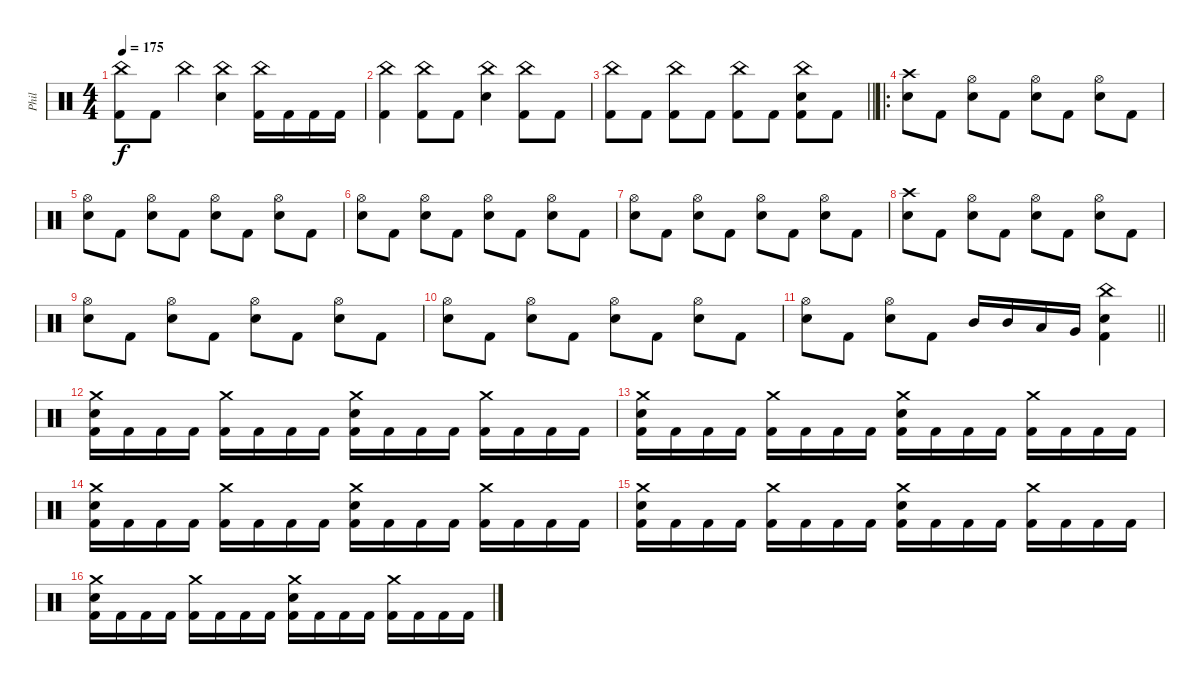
\track ("Phil" "Phil") {instrument percussion}
\staff {score}
\articulation defaults
\ts (4 4)
\tempo 175
\clef neutral
\ks c
("China (hit)" "Kick (hit) 2").8{dy f} "Kick (hit) 2".8 "China (hit)".4 ("China (hit)" "Electric Snare (hit)").4 ("China (hit)" "Kick (hit) 2").16 "Kick (hit) 2".16 "Kick (hit) 2".16 "Kick (hit) 2".16 |
("China (hit)" "Kick (hit) 2").4 ("China (hit)" "Kick (hit) 2").8 "Kick (hit) 2".8 ("China (hit)" "Electric Snare (hit)").4 ("China (hit)" "Kick (hit) 2").8 "Kick (hit) 2".8 |
\barLineRight lightlight
("China (hit)" "Kick (hit) 2").8 "Kick (hit) 2".8 ("China (hit)" "Kick (hit) 2").8 "Kick (hit) 2".8 ("China (hit)" "Kick (hit) 2").8 "Kick (hit) 2".8 ("China (hit)" "Electric Snare (hit)" "Kick (hit) 2").8 "Kick (hit) 2".8 |
\ro
\section ("" "")
("Crash high (hit)" "Electric Snare (hit)").8 "Kick (hit) 2".8 ("Hi-Hat (open)" "Electric Snare (hit)").8 "Kick (hit) 2".8 ("Hi-Hat (open)" "Electric Snare (hit)").8 "Kick (hit) 2".8 ("Hi-Hat (open)" "Electric Snare (hit)").8 "Kick (hit) 2".8 |
("Hi-Hat (open)" "Electric Snare (hit)").8 "Kick (hit) 2".8 ("Hi-Hat (open)" "Electric Snare (hit)").8 "Kick (hit) 2".8 ("Hi-Hat (open)" "Electric Snare (hit)").8 "Kick (hit) 2".8 ("Hi-Hat (open)" "Electric Snare (hit)").8 "Kick (hit) 2".8 |
("Hi-Hat (open)" "Electric Snare (hit)").8 "Kick (hit) 2".8 ("Hi-Hat (open)" "Electric Snare (hit)").8 "Kick (hit) 2".8 ("Hi-Hat (open)" "Electric Snare (hit)").8 "Kick (hit) 2".8 ("Hi-Hat (open)" "Electric Snare (hit)").8 "Kick (hit) 2".8 |
("Hi-Hat (open)" "Electric Snare (hit)").8 "Kick (hit) 2".8 ("Hi-Hat (open)" "Electric Snare (hit)").8 "Kick (hit) 2".8 ("Hi-Hat (open)" "Electric Snare (hit)").8 "Kick (hit) 2".8 ("Hi-Hat (open)" "Electric Snare (hit)").8 "Kick (hit) 2".8 |
("Crash high (hit)" "Electric Snare (hit)").8 "Kick (hit) 2".8 ("Hi-Hat (open)" "Electric Snare (hit)").8 "Kick (hit) 2".8 ("Hi-Hat (open)" "Electric Snare (hit)").8 "Kick (hit) 2".8 ("Hi-Hat (open)" "Electric Snare (hit)").8 "Kick (hit) 2".8 |
("Hi-Hat (open)" "Electric Snare (hit)").8 "Kick (hit) 2".8 ("Hi-Hat (open)" "Electric Snare (hit)").8 "Kick (hit) 2".8 ("Hi-Hat (open)" "Electric Snare (hit)").8 "Kick (hit) 2".8 ("Hi-Hat (open)" "Electric Snare (hit)").8 "Kick (hit) 2".8 |
("Hi-Hat (open)" "Electric Snare (hit)").8 "Kick (hit) 2".8 ("Hi-Hat (open)" "Electric Snare (hit)").8 "Kick (hit) 2".8 ("Hi-Hat (open)" "Electric Snare (hit)").8 "Kick (hit) 2".8 ("Hi-Hat (open)" "Electric Snare (hit)").8 "Kick (hit) 2".8 |
\barLineRight lightlight
("Hi-Hat (open)" "Electric Snare (hit)").8 "Kick (hit) 2".8 ("Hi-Hat (open)" "Electric Snare (hit)").8 "Kick (hit) 2".8 "Mid Tom (hit)".16 "Mid Tom (hit)".16 "Low Tom (hit)".16 "Very Low Tom (hit)".16 ("China (hit)" "Electric Snare (hit)" "Kick (hit) 2").4 |
\section ("" "")
("Crash medium (hit)" "Electric Snare (hit)" "Kick (hit) 2").16 "Kick (hit) 2".16 "Kick (hit) 2".16 "Kick (hit) 2".16 ("Crash medium (hit)" "Kick (hit) 2").16 "Kick (hit) 2".16 "Kick (hit) 2".16 "Kick (hit) 2".16 ("Crash medium (hit)" "Electric Snare (hit)" "Kick (hit) 2").16 "Kick (hit) 2".16 "Kick (hit) 2".16 "Kick (hit) 2".16 ("Crash medium (hit)" "Kick (hit) 2").16 "Kick (hit) 2".16 "Kick (hit) 2".16 "Kick (hit) 2".16 |
("Crash medium (hit)" "Electric Snare (hit)" "Kick (hit) 2").16 "Kick (hit) 2".16 "Kick (hit) 2".16 "Kick (hit) 2".16 ("Crash medium (hit)" "Kick (hit) 2").16 "Kick (hit) 2".16 "Kick (hit) 2".16 "Kick (hit) 2".16 ("Crash medium (hit)" "Electric Snare (hit)" "Kick (hit) 2").16 "Kick (hit) 2".16 "Kick (hit) 2".16 "Kick (hit) 2".16 ("Crash medium (hit)" "Kick (hit) 2").16 "Kick (hit) 2".16 "Kick (hit) 2".16 "Kick (hit) 2".16 |
("Crash medium (hit)" "Electric Snare (hit)" "Kick (hit) 2").16 "Kick (hit) 2".16 "Kick (hit) 2".16 "Kick (hit) 2".16 ("Crash medium (hit)" "Kick (hit) 2").16 "Kick (hit) 2".16 "Kick (hit) 2".16 "Kick (hit) 2".16 ("Crash medium (hit)" "Electric Snare (hit)" "Kick (hit) 2").16 "Kick (hit) 2".16 "Kick (hit) 2".16 "Kick (hit) 2".16 ("Crash medium (hit)" "Kick (hit) 2").16 "Kick (hit) 2".16 "Kick (hit) 2".16 "Kick (hit) 2".16 |
("Crash medium (hit)" "Electric Snare (hit)" "Kick (hit) 2").16 "Kick (hit) 2".16 "Kick (hit) 2".16 "Kick (hit) 2".16 ("Crash medium (hit)" "Kick (hit) 2").16 "Kick (hit) 2".16 "Kick (hit) 2".16 "Kick (hit) 2".16 ("Crash medium (hit)" "Electric Snare (hit)" "Kick (hit) 2").16 "Kick (hit) 2".16 "Kick (hit) 2".16 "Kick (hit) 2".16 ("Crash medium (hit)" "Kick (hit) 2").16 "Kick (hit) 2".16 "Kick (hit) 2".16 "Kick (hit) 2".16 |
("Crash medium (hit)" "Electric Snare (hit)" "Kick (hit) 2").16 "Kick (hit) 2".16 "Kick (hit) 2".16 "Kick (hit) 2".16 ("Crash medium (hit)" "Kick (hit) 2").16 "Kick (hit) 2".16 "Kick (hit) 2".16 "Kick (hit) 2".16 ("Crash medium (hit)" "Electric Snare (hit)" "Kick (hit) 2").16 "Kick (hit) 2".16 "Kick (hit) 2".16 "Kick (hit) 2".16 ("Crash medium (hit)" "Kick (hit) 2").16 "Kick (hit) 2".16 "Kick (hit) 2".16 "Kick (hit) 2".16
